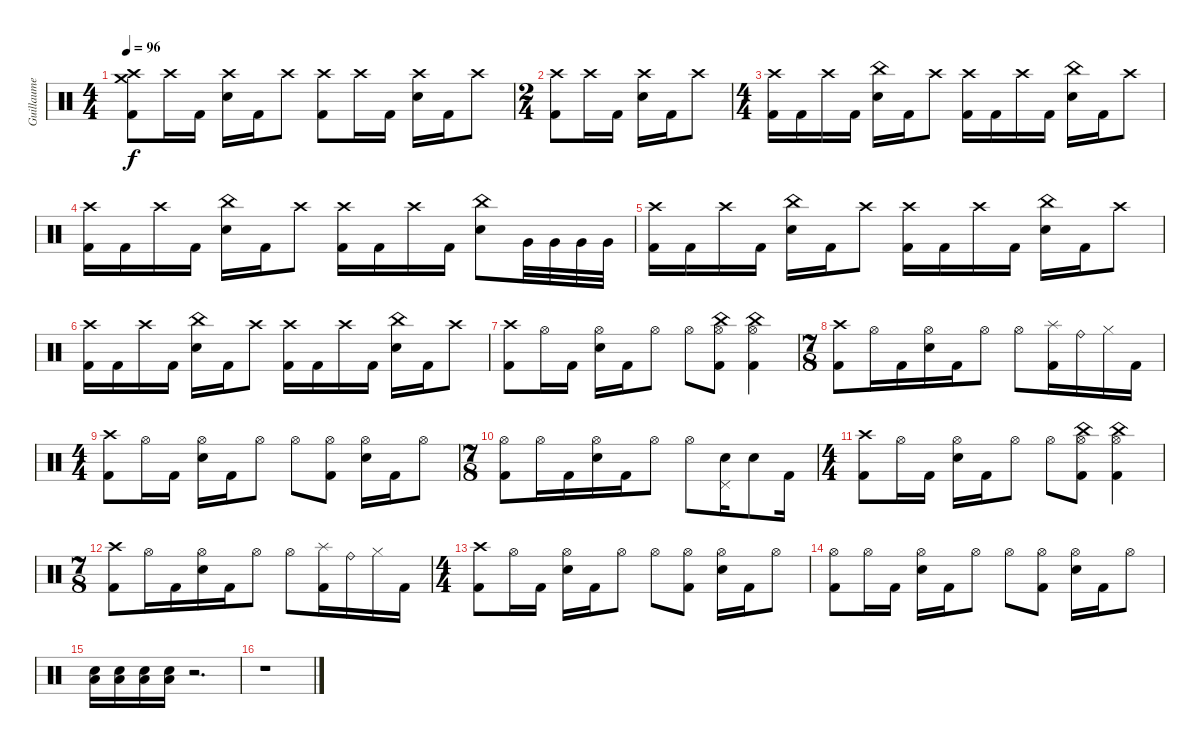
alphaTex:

\track ("Guillaume" "Guillaume") {instrument percussion}
\staff {score}
\articulation defaults
\ts (4 4)
\tempo 96
\clef neutral
\ks c
("Crash high (hit)" "Crash medium (hit)" "Kick (hit) 2").8{dy f} "Crash high (hit)".16 "Kick (hit) 2".16 ("Crash high (hit)" "Electric Snare (hit)").16 "Kick (hit) 2".16 "Crash high (hit)".8 ("Crash high (hit)" "Kick (hit) 2").8 "Crash high (hit)".16 "Kick (hit) 2".16 ("Crash high (hit)" "Electric Snare (hit)").16 "Kick (hit) 2".16 "Crash high (hit)".8 |
\ts (2 4)
("Crash high (hit)" "Kick (hit) 2").8 "Crash high (hit)".16 "Kick (hit) 2".16 ("Crash high (hit)" "Electric Snare (hit)").16 "Kick (hit) 2".16 "Crash high (hit)".8 |
\ts (4 4)
\section ("" "")
("Crash high (hit)" "Kick (hit) 2").16 "Kick (hit) 2".16 "Crash high (hit)".16 "Kick (hit) 2".16 ("China (hit)" "Electric Snare (hit)").16 "Kick (hit) 2".16 "Crash high (hit)".8 ("Crash high (hit)" "Kick (hit) 2").16 "Kick (hit) 2".16 "Crash high (hit)".16 "Kick (hit) 2".16 ("China (hit)" "Electric Snare (hit)").16 "Kick (hit) 2".16 "Crash high (hit)".8 |
("Crash high (hit)" "Kick (hit) 2").16 "Kick (hit) 2".16 "Crash high (hit)".16 "Kick (hit) 2".16 ("China (hit)" "Electric Snare (hit)").16 "Kick (hit) 2".16 "Crash high (hit)".8 ("Crash high (hit)" "Kick (hit) 2").16 "Kick (hit) 2".16 "Crash high (hit)".16 "Kick (hit) 2".16 ("China (hit)" "Electric Snare (hit)").8 "Very Low Tom (hit)".32 "Very Low Tom (hit)".32 "Very Low Tom (hit)".32 "Very Low Tom (hit)".32 |
("Crash high (hit)" "Kick (hit) 2").16 "Kick (hit) 2".16 "Crash high (hit)".16 "Kick (hit) 2".16 ("China (hit)" "Electric Snare (hit)").16 "Kick (hit) 2".16 "Crash high (hit)".8 ("Crash high (hit)" "Kick (hit) 2").16 "Kick (hit) 2".16 "Crash high (hit)".16 "Kick (hit) 2".16 ("China (hit)" "Electric Snare (hit)").16 "Kick (hit) 2".16 "Crash high (hit)".8 |
("Crash high (hit)" "Kick (hit) 2").16 "Kick (hit) 2".16 "Crash high (hit)".16 "Kick (hit) 2".16 ("China (hit)" "Electric Snare (hit)").16 "Kick (hit) 2".16 "Crash high (hit)".8 ("Crash high (hit)" "Kick (hit) 2").16 "Kick (hit) 2".16 "Crash high (hit)".16 "Kick (hit) 2".16 ("China (hit)" "Electric Snare (hit)").16 "Kick (hit) 2".16 "Crash high (hit)".8 |
\section ("" "")
("Crash high (hit)" "Kick (hit) 2").8 "Hi-Hat (open)".16 "Kick (hit) 2".16 ("Hi-Hat (open)" "Electric Snare (hit)").16 "Kick (hit) 2".16 "Hi-Hat (open)".8 "Hi-Hat (open)".8 ("China (hit)" "Hi-Hat (open)" "Kick (hit) 2").8 ("China (hit)" "Hi-Hat (open)" "Kick (hit) 2").4 |
\ts (7 8)
("Crash high (hit)" "Kick (hit) 2").8 "Hi-Hat (open)".16 "Kick (hit) 2".16 ("Hi-Hat (open)" "Electric Snare (hit)").16 "Kick (hit) 2".16 "Hi-Hat (open)".8 "Hi-Hat (open)".8 ("Splash (hit)" "Kick (hit) 2").16 "Ride (bell)".16 "Hi-Hat (closed)".16 "Kick (hit) 2".16 |
\ts (4 4)
("Crash high (hit)" "Kick (hit) 2").8 "Hi-Hat (open)".16 "Kick (hit) 2".16 ("Hi-Hat (open)" "Electric Snare (hit)").16 "Kick (hit) 2".16 "Hi-Hat (open)".8 "Hi-Hat (open)".8 ("Hi-Hat (open)" "Kick (hit) 2").8 ("Hi-Hat (open)" "Electric Snare (hit)").16 "Kick (hit) 2".16 "Hi-Hat (open)".8 |
\ts (7 8)
("Hi-Hat (open)" "Kick (hit) 2").8 "Hi-Hat (open)".16 "Kick (hit) 2".16 ("Hi-Hat (open)" "Electric Snare (hit)").16 "Kick (hit) 2".16 "Hi-Hat (open)".8 "Hi-Hat (open)".8 ("Pedal Hi-Hat (hit)" "Electric Snare (hit)").16 "Electric Snare (hit)".8 "Kick (hit) 2".16 |
\ts (4 4)
("Crash high (hit)" "Kick (hit) 2").8 "Hi-Hat (open)".16 "Kick (hit) 2".16 ("Hi-Hat (open)" "Electric Snare (hit)").16 "Kick (hit) 2".16 "Hi-Hat (open)".8 "Hi-Hat (open)".8 ("China (hit)" "Hi-Hat (open)" "Kick (hit) 2").8 ("China (hit)" "Hi-Hat (open)" "Kick (hit) 2").4 |
\ts (7 8)
("Crash high (hit)" "Kick (hit) 2").8 "Hi-Hat (open)".16 "Kick (hit) 2".16 ("Hi-Hat (open)" "Electric Snare (hit)").16 "Kick (hit) 2".16 "Hi-Hat (open)".8 "Hi-Hat (open)".8 ("Splash (hit)" "Kick (hit) 2").16 "Ride (bell)".16 "Hi-Hat (closed)".16 "Kick (hit) 2".16 |
\ts (4 4)
("Crash high (hit)" "Kick (hit) 2").8 "Hi-Hat (open)".16 "Kick (hit) 2".16 ("Hi-Hat (open)" "Electric Snare (hit)").16 "Kick (hit) 2".16 "Hi-Hat (open)".8 "Hi-Hat (open)".8 ("Hi-Hat (open)" "Kick (hit) 2").8 ("Hi-Hat (open)" "Electric Snare (hit)").16 "Kick (hit) 2".16 "Hi-Hat (open)".8 |
("Hi-Hat (open)" "Kick (hit) 2").8 "Hi-Hat (open)".16 "Kick (hit) 2".16 ("Hi-Hat (open)" "Electric Snare (hit)").16 "Kick (hit) 2".16 "Hi-Hat (open)".8 "Hi-Hat (open)".8 ("Hi-Hat (open)" "Kick (hit) 2").8 ("Hi-Hat (open)" "Electric Snare (hit)").16 "Kick (hit) 2".16 "Hi-Hat (open)".8 |
\section ("" "")
("Low Floor Tom (hit)" "Electric Snare (hit)").16 ("Low Floor Tom (hit)" "Electric Snare (hit)").16 ("Low Floor Tom (hit)" "Electric Snare (hit)").16 ("Low Floor Tom (hit)" "Electric Snare (hit)").16 r.2{d} |
r.1
